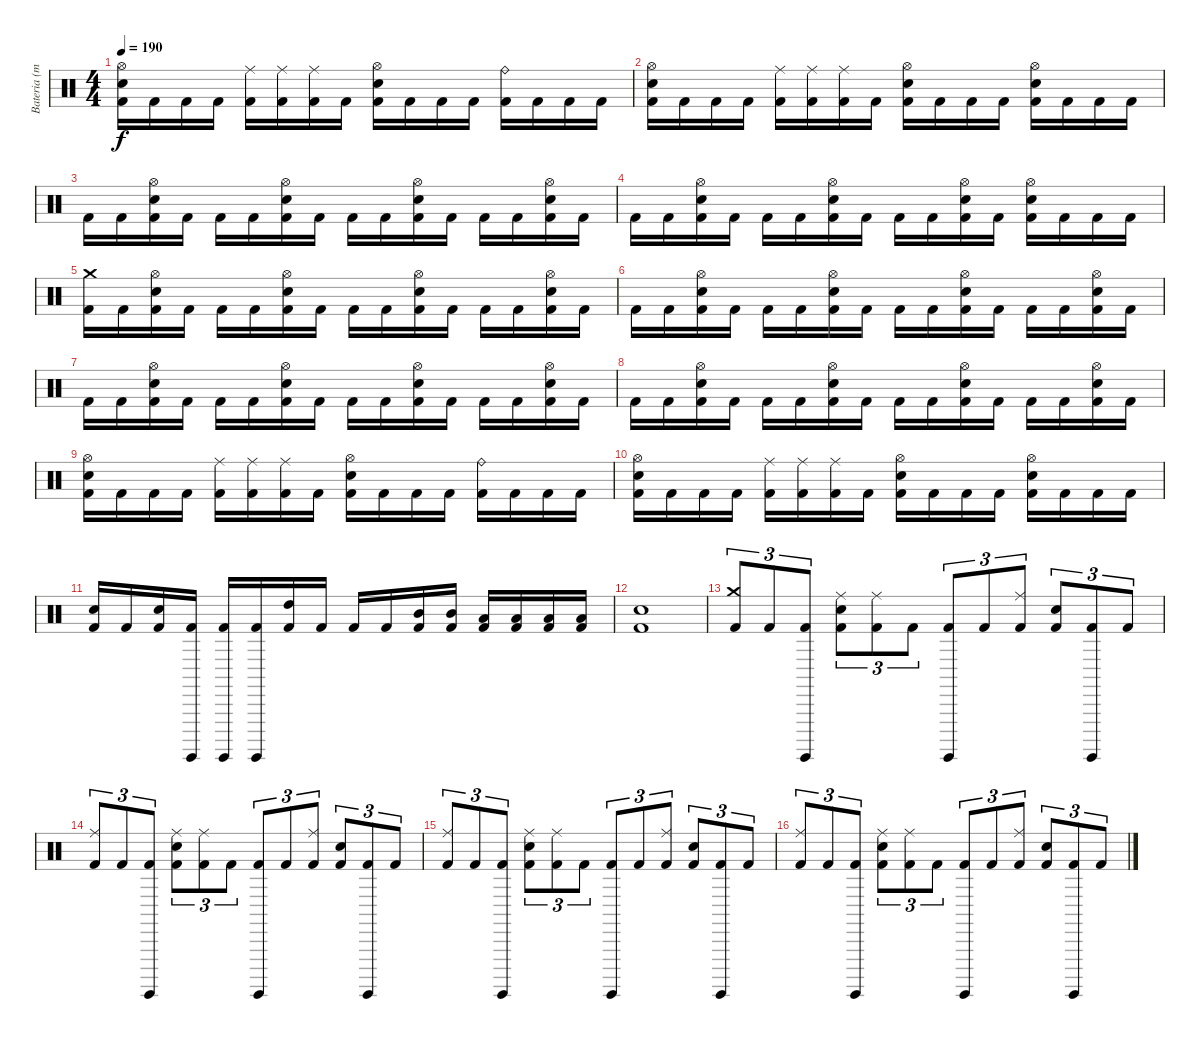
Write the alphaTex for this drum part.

\track ("Bateria (mestre Aquiles Priester)" "Bateria (m") {instrument percussion}
\staff {score}
\articulation defaults
\ts (4 4)
\tempo 190
\clef neutral
\ks c
("Kick (hit) 2" "Electric Snare (hit)" "Hi-Hat (open)").16{dy f} "Kick (hit) 2".16 "Kick (hit) 2".16 "Kick (hit) 2".16 ("Kick (hit) 2" "Ride (middle)").16 ("Kick (hit) 2" "Ride (middle)").16 ("Kick (hit) 2" "Ride (middle)").16 "Kick (hit) 2".16 ("Kick (hit) 2" "Electric Snare (hit)" "Hi-Hat (open)").16 "Kick (hit) 2".16 "Kick (hit) 2".16 "Kick (hit) 2".16 ("Kick (hit) 2" "Ride (bell)").16 "Kick (hit) 2".16 "Kick (hit) 2".16 "Kick (hit) 2".16 |
("Kick (hit) 2" "Electric Snare (hit)" "Hi-Hat (open)").16 "Kick (hit) 2".16 "Kick (hit) 2".16 "Kick (hit) 2".16 ("Kick (hit) 2" "Ride (middle)").16 ("Kick (hit) 2" "Ride (middle)").16 ("Kick (hit) 2" "Ride (middle)").16 "Kick (hit) 2".16 ("Kick (hit) 2" "Electric Snare (hit)" "Hi-Hat (open)").16 "Kick (hit) 2".16 "Kick (hit) 2".16 "Kick (hit) 2".16 ("Kick (hit) 2" "Electric Snare (hit)" "Hi-Hat (open)").16 "Kick (hit) 2".16 "Kick (hit) 2".16 "Kick (hit) 2".16 |
"Kick (hit) 2".16 "Kick (hit) 2".16 ("Kick (hit) 2" "Electric Snare (hit)" "Hi-Hat (open)").16 "Kick (hit) 2".16 "Kick (hit) 2".16 "Kick (hit) 2".16 ("Kick (hit) 2" "Electric Snare (hit)" "Hi-Hat (open)").16 "Kick (hit) 2".16 "Kick (hit) 2".16 "Kick (hit) 2".16 ("Kick (hit) 2" "Electric Snare (hit)" "Hi-Hat (open)").16 "Kick (hit) 2".16 "Kick (hit) 2".16 "Kick (hit) 2".16 ("Kick (hit) 2" "Electric Snare (hit)" "Hi-Hat (open)").16 "Kick (hit) 2".16 |
"Kick (hit) 2".16 "Kick (hit) 2".16 ("Kick (hit) 2" "Electric Snare (hit)" "Hi-Hat (open)").16 "Kick (hit) 2".16 "Kick (hit) 2".16 "Kick (hit) 2".16 ("Kick (hit) 2" "Electric Snare (hit)" "Hi-Hat (open)").16 "Kick (hit) 2".16 "Kick (hit) 2".16 "Kick (hit) 2".16 ("Kick (hit) 2" "Electric Snare (hit)" "Hi-Hat (open)").16 "Kick (hit) 2".16 ("Kick (hit) 2" "Electric Snare (hit)" "Hi-Hat (open)").16 "Kick (hit) 2".16 "Kick (hit) 2".16 "Kick (hit) 2".16 |
("Kick (hit) 2" "Crash medium (hit)").16 "Kick (hit) 2".16 ("Kick (hit) 2" "Electric Snare (hit)" "Hi-Hat (open)").16 "Kick (hit) 2".16 "Kick (hit) 2".16 "Kick (hit) 2".16 ("Kick (hit) 2" "Electric Snare (hit)" "Hi-Hat (open)").16 "Kick (hit) 2".16 "Kick (hit) 2".16 "Kick (hit) 2".16 ("Kick (hit) 2" "Electric Snare (hit)" "Hi-Hat (open)").16 "Kick (hit) 2".16 "Kick (hit) 2".16 "Kick (hit) 2".16 ("Kick (hit) 2" "Electric Snare (hit)" "Hi-Hat (open)").16 "Kick (hit) 2".16 |
"Kick (hit) 2".16 "Kick (hit) 2".16 ("Kick (hit) 2" "Electric Snare (hit)" "Hi-Hat (open)").16 "Kick (hit) 2".16 "Kick (hit) 2".16 "Kick (hit) 2".16 ("Kick (hit) 2" "Electric Snare (hit)" "Hi-Hat (open)").16 "Kick (hit) 2".16 "Kick (hit) 2".16 "Kick (hit) 2".16 ("Kick (hit) 2" "Electric Snare (hit)" "Hi-Hat (open)").16 "Kick (hit) 2".16 "Kick (hit) 2".16 "Kick (hit) 2".16 ("Kick (hit) 2" "Electric Snare (hit)" "Hi-Hat (open)").16 "Kick (hit) 2".16 |
"Kick (hit) 2".16 "Kick (hit) 2".16 ("Kick (hit) 2" "Electric Snare (hit)" "Hi-Hat (open)").16 "Kick (hit) 2".16 "Kick (hit) 2".16 "Kick (hit) 2".16 ("Kick (hit) 2" "Electric Snare (hit)" "Hi-Hat (open)").16 "Kick (hit) 2".16 "Kick (hit) 2".16 "Kick (hit) 2".16 ("Kick (hit) 2" "Electric Snare (hit)" "Hi-Hat (open)").16 "Kick (hit) 2".16 "Kick (hit) 2".16 "Kick (hit) 2".16 ("Kick (hit) 2" "Electric Snare (hit)" "Hi-Hat (open)").16 "Kick (hit) 2".16 |
"Kick (hit) 2".16 "Kick (hit) 2".16 ("Kick (hit) 2" "Electric Snare (hit)" "Hi-Hat (open)").16 "Kick (hit) 2".16 "Kick (hit) 2".16 "Kick (hit) 2".16 ("Kick (hit) 2" "Electric Snare (hit)" "Hi-Hat (open)").16 "Kick (hit) 2".16 "Kick (hit) 2".16 "Kick (hit) 2".16 ("Kick (hit) 2" "Electric Snare (hit)" "Hi-Hat (open)").16 "Kick (hit) 2".16 "Kick (hit) 2".16 "Kick (hit) 2".16 ("Kick (hit) 2" "Electric Snare (hit)" "Hi-Hat (open)").16 "Kick (hit) 2".16 |
("Kick (hit) 2" "Electric Snare (hit)" "Hi-Hat (open)").16 "Kick (hit) 2".16 "Kick (hit) 2".16 "Kick (hit) 2".16 ("Kick (hit) 2" "Ride (middle)").16 ("Kick (hit) 2" "Ride (middle)").16 ("Kick (hit) 2" "Ride (middle)").16 "Kick (hit) 2".16 ("Kick (hit) 2" "Electric Snare (hit)" "Hi-Hat (open)").16 "Kick (hit) 2".16 "Kick (hit) 2".16 "Kick (hit) 2".16 ("Kick (hit) 2" "Ride (bell)").16 "Kick (hit) 2".16 "Kick (hit) 2".16 "Kick (hit) 2".16 |
("Kick (hit) 2" "Electric Snare (hit)" "Hi-Hat (open)").16 "Kick (hit) 2".16 "Kick (hit) 2".16 "Kick (hit) 2".16 ("Kick (hit) 2" "Ride (middle)").16 ("Kick (hit) 2" "Ride (middle)").16 ("Kick (hit) 2" "Ride (middle)").16 "Kick (hit) 2".16 ("Kick (hit) 2" "Electric Snare (hit)" "Hi-Hat (open)").16 "Kick (hit) 2".16 "Kick (hit) 2".16 "Kick (hit) 2".16 ("Kick (hit) 2" "Electric Snare (hit)" "Hi-Hat (open)").16 "Kick (hit) 2".16 "Kick (hit) 2".16 "Kick (hit) 2".16 |
("Kick (hit) 2" "Electric Snare (hit)").16 "Kick (hit) 2".16 ("Kick (hit) 2" "Electric Snare (hit)").16 ("Kick (hit) 2" "Surdo (hit)").16 ("Kick (hit) 2" "Surdo (hit)").16 ("Kick (hit) 2" "Surdo (hit)").16 ("Kick (hit) 2" "High Tom (hit)").16 "Kick (hit) 2".16 "Kick (hit) 2".16 "Kick (hit) 2".16 ("Kick (hit) 2" "Mid Tom (hit)").16 ("Kick (hit) 2" "Mid Tom (hit)").16 ("Kick (hit) 2" "Low Tom (hit)").16 ("Kick (hit) 2" "Low Tom (hit)").16 ("Kick (hit) 2" "Low Tom (hit)").16 ("Kick (hit) 2" "Low Tom (hit)").16 |
("Kick (hit) 2" "Electric Snare (hit)").1 |
("Kick (hit) 2" "Crash medium (hit)").8{tu (3 2)} "Kick (hit) 2".8{tu (3 2)} ("Kick (hit) 2" "Surdo (hit)").8{tu (3 2)} ("Kick (hit) 2" "Electric Snare (hit)" "Ride (middle)").8{tu (3 2)} ("Kick (hit) 2" "Ride (middle)").8{tu (3 2)} "Kick (hit) 2".8{tu (3 2)} ("Kick (hit) 2" "Surdo (hit)").8{tu (3 2)} "Kick (hit) 2".8{tu (3 2)} ("Kick (hit) 2" "Ride (middle)").8{tu (3 2)} ("Kick (hit) 2" "Electric Snare (hit)").8{tu (3 2)} ("Kick (hit) 2" "Surdo (hit)").8{tu (3 2)} "Kick (hit) 2".8{tu (3 2)} |
("Kick (hit) 2" "Ride (middle)").8{tu (3 2)} "Kick (hit) 2".8{tu (3 2)} ("Kick (hit) 2" "Surdo (hit)").8{tu (3 2)} ("Kick (hit) 2" "Electric Snare (hit)" "Ride (middle)").8{tu (3 2)} ("Kick (hit) 2" "Ride (middle)").8{tu (3 2)} "Kick (hit) 2".8{tu (3 2)} ("Kick (hit) 2" "Surdo (hit)").8{tu (3 2)} "Kick (hit) 2".8{tu (3 2)} ("Kick (hit) 2" "Ride (middle)").8{tu (3 2)} ("Kick (hit) 2" "Electric Snare (hit)").8{tu (3 2)} ("Kick (hit) 2" "Surdo (hit)").8{tu (3 2)} "Kick (hit) 2".8{tu (3 2)} |
("Kick (hit) 2" "Ride (middle)").8{tu (3 2)} "Kick (hit) 2".8{tu (3 2)} ("Kick (hit) 2" "Surdo (hit)").8{tu (3 2)} ("Kick (hit) 2" "Electric Snare (hit)" "Ride (middle)").8{tu (3 2)} ("Kick (hit) 2" "Ride (middle)").8{tu (3 2)} "Kick (hit) 2".8{tu (3 2)} ("Kick (hit) 2" "Surdo (hit)").8{tu (3 2)} "Kick (hit) 2".8{tu (3 2)} ("Kick (hit) 2" "Ride (middle)").8{tu (3 2)} ("Kick (hit) 2" "Electric Snare (hit)").8{tu (3 2)} ("Kick (hit) 2" "Surdo (hit)").8{tu (3 2)} "Kick (hit) 2".8{tu (3 2)} |
("Kick (hit) 2" "Ride (middle)").8{tu (3 2)} "Kick (hit) 2".8{tu (3 2)} ("Kick (hit) 2" "Surdo (hit)").8{tu (3 2)} ("Kick (hit) 2" "Electric Snare (hit)" "Ride (middle)").8{tu (3 2)} ("Kick (hit) 2" "Ride (middle)").8{tu (3 2)} "Kick (hit) 2".8{tu (3 2)} ("Kick (hit) 2" "Surdo (hit)").8{tu (3 2)} "Kick (hit) 2".8{tu (3 2)} ("Kick (hit) 2" "Ride (middle)").8{tu (3 2)} ("Kick (hit) 2" "Electric Snare (hit)").8{tu (3 2)} ("Kick (hit) 2" "Surdo (hit)").8{tu (3 2)} "Kick (hit) 2".8{tu (3 2)}
